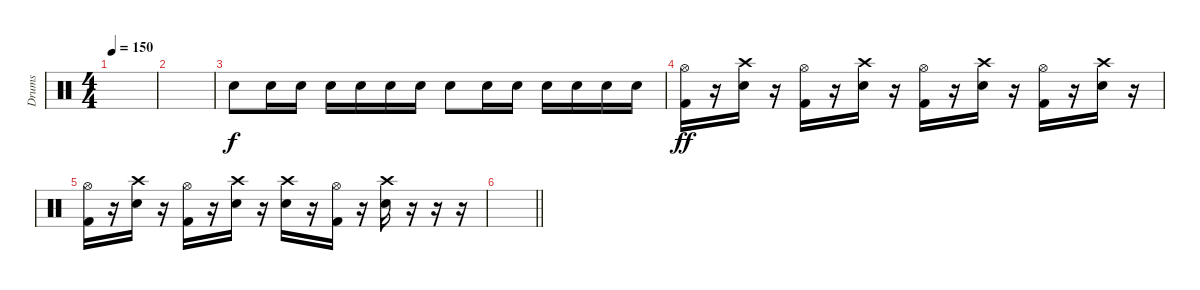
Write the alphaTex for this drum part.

\track ("Drums" "Drums") {instrument percussion}
\staff {score}
\articulation defaults
\ts (4 4)
\tempo 150
\clef neutral
\ks c
|
|
"Electric Snare (hit)".8 "Electric Snare (hit)".16 "Electric Snare (hit)".16 "Electric Snare (hit)".16 "Electric Snare (hit)".16 "Electric Snare (hit)".16 "Electric Snare (hit)".16 "Electric Snare (hit)".8 "Electric Snare (hit)".16 "Electric Snare (hit)".16 "Electric Snare (hit)".16 "Electric Snare (hit)".16 "Electric Snare (hit)".16 "Electric Snare (hit)".16 |
("Hi-Hat (open)" "Kick (hit) 2").16{dy ff} r.16 ("Crash high (hit)" "Snare (hit) 2").16 r.16 ("Hi-Hat (open)" "Kick (hit) 2").16 r.16 ("Crash high (hit)" "Snare (hit) 2").16 r.16 ("Hi-Hat (open)" "Kick (hit) 2").16 r.16 ("Crash high (hit)" "Snare (hit) 2").16 r.16 ("Hi-Hat (open)" "Kick (hit) 2").16 r.16 ("Crash high (hit)" "Snare (hit) 2").16 r.16 |
("Hi-Hat (open)" "Kick (hit) 2").16 r.16 ("Crash high (hit)" "Snare (hit) 2").16 r.16 ("Hi-Hat (open)" "Kick (hit) 2").16 r.16 ("Crash high (hit)" "Snare (hit) 2").16 r.16 ("Crash high (hit)" "Snare (hit) 2").16 r.16 ("Hi-Hat (open)" "Kick (hit) 2").16 r.16 ("Crash high (hit)" "Snare (hit) 2").16 r.16 r.16 r.16 |
\barLineRight lightlight
